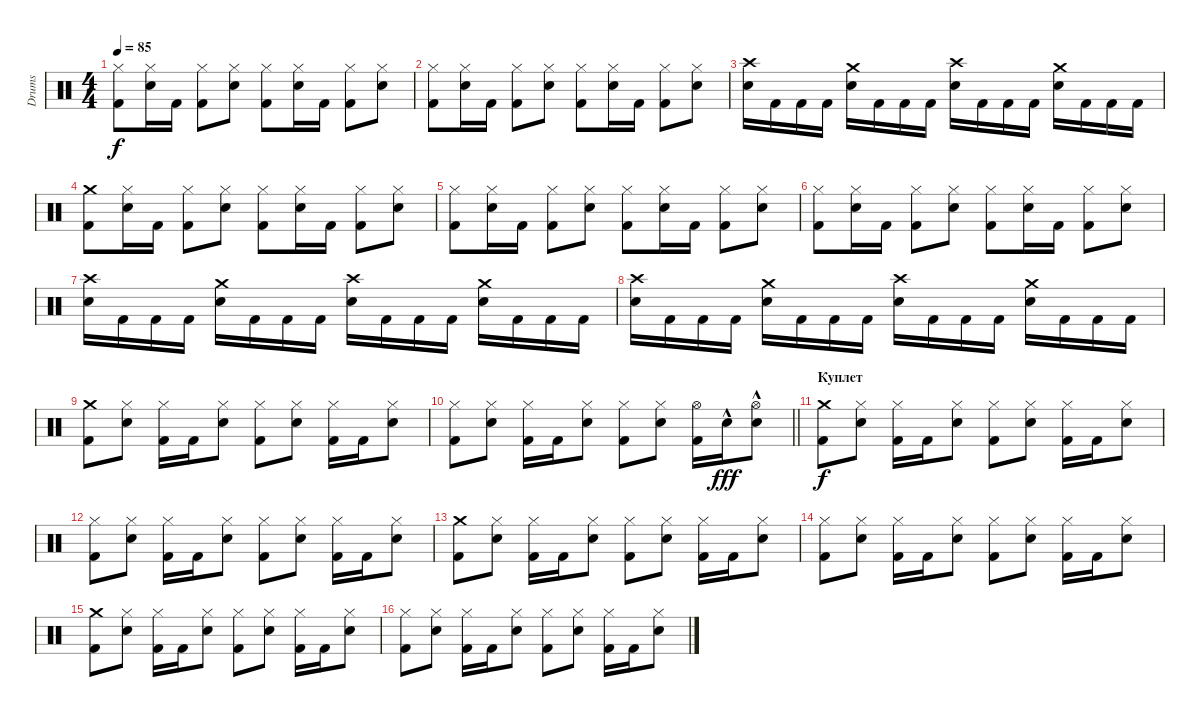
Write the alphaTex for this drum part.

\track ("Drums" "Drums") {instrument percussion}
\staff {score}
\articulation defaults
\ts (4 4)
\tempo 85
\clef neutral
\ks c
("Hi-Hat (closed)" "Kick (hit) 2").8{dy f} ("Hi-Hat (closed)" "Snare (hit) 2").16 "Kick (hit) 2".16 ("Hi-Hat (closed)" "Kick (hit) 2").8 ("Hi-Hat (closed)" "Snare (hit) 2").8 ("Hi-Hat (closed)" "Kick (hit) 2").8 ("Hi-Hat (closed)" "Snare (hit) 2").16 "Kick (hit) 2".16 ("Hi-Hat (closed)" "Kick (hit) 2").8 ("Hi-Hat (closed)" "Snare (hit) 2").8 |
("Hi-Hat (closed)" "Kick (hit) 2").8 ("Hi-Hat (closed)" "Snare (hit) 2").16 "Kick (hit) 2".16 ("Hi-Hat (closed)" "Kick (hit) 2").8 ("Hi-Hat (closed)" "Snare (hit) 2").8 ("Hi-Hat (closed)" "Kick (hit) 2").8 ("Hi-Hat (closed)" "Snare (hit) 2").16 "Kick (hit) 2".16 ("Hi-Hat (closed)" "Kick (hit) 2").8 ("Hi-Hat (closed)" "Snare (hit) 2").8 |
("Crash high (hit)" "Snare (hit) 2").16 "Kick (hit) 2".16 "Kick (hit) 2".16 "Kick (hit) 2".16 ("Crash medium (hit)" "Snare (hit) 2").16 "Kick (hit) 2".16 "Kick (hit) 2".16 "Kick (hit) 2".16 ("Crash high (hit)" "Snare (hit) 2").16 "Kick (hit) 2".16 "Kick (hit) 2".16 "Kick (hit) 2".16 ("Crash medium (hit)" "Snare (hit) 2").16 "Kick (hit) 2".16 "Kick (hit) 2".16 "Kick (hit) 2".16 |
("Crash medium (hit)" "Kick (hit) 2").8 ("Hi-Hat (closed)" "Snare (hit) 2").16 "Kick (hit) 2".16 ("Hi-Hat (closed)" "Kick (hit) 2").8 ("Hi-Hat (closed)" "Snare (hit) 2").8 ("Hi-Hat (closed)" "Kick (hit) 2").8 ("Hi-Hat (closed)" "Snare (hit) 2").16 "Kick (hit) 2".16 ("Hi-Hat (closed)" "Kick (hit) 2").8 ("Hi-Hat (closed)" "Snare (hit) 2").8 |
("Hi-Hat (closed)" "Kick (hit) 2").8 ("Hi-Hat (closed)" "Snare (hit) 2").16 "Kick (hit) 2".16 ("Hi-Hat (closed)" "Kick (hit) 2").8 ("Hi-Hat (closed)" "Snare (hit) 2").8 ("Hi-Hat (closed)" "Kick (hit) 2").8 ("Hi-Hat (closed)" "Snare (hit) 2").16 "Kick (hit) 2".16 ("Hi-Hat (closed)" "Kick (hit) 2").8 ("Hi-Hat (closed)" "Snare (hit) 2").8 |
("Hi-Hat (closed)" "Kick (hit) 2").8 ("Hi-Hat (closed)" "Snare (hit) 2").16 "Kick (hit) 2".16 ("Hi-Hat (closed)" "Kick (hit) 2").8 ("Hi-Hat (closed)" "Snare (hit) 2").8 ("Hi-Hat (closed)" "Kick (hit) 2").8 ("Hi-Hat (closed)" "Snare (hit) 2").16 "Kick (hit) 2".16 ("Hi-Hat (closed)" "Kick (hit) 2").8 ("Hi-Hat (closed)" "Snare (hit) 2").8 |
("Crash high (hit)" "Snare (hit) 2").16 "Kick (hit) 2".16 "Kick (hit) 2".16 "Kick (hit) 2".16 ("Crash medium (hit)" "Snare (hit) 2").16 "Kick (hit) 2".16 "Kick (hit) 2".16 "Kick (hit) 2".16 ("Crash high (hit)" "Snare (hit) 2").16 "Kick (hit) 2".16 "Kick (hit) 2".16 "Kick (hit) 2".16 ("Crash medium (hit)" "Snare (hit) 2").16 "Kick (hit) 2".16 "Kick (hit) 2".16 "Kick (hit) 2".16 |
("Crash high (hit)" "Snare (hit) 2").16 "Kick (hit) 2".16 "Kick (hit) 2".16 "Kick (hit) 2".16 ("Crash medium (hit)" "Snare (hit) 2").16 "Kick (hit) 2".16 "Kick (hit) 2".16 "Kick (hit) 2".16 ("Crash high (hit)" "Snare (hit) 2").16 "Kick (hit) 2".16 "Kick (hit) 2".16 "Kick (hit) 2".16 ("Crash medium (hit)" "Snare (hit) 2").16 "Kick (hit) 2".16 "Kick (hit) 2".16 "Kick (hit) 2".16 |
("Crash medium (hit)" "Kick (hit) 2").8 ("Hi-Hat (closed)" "Snare (hit) 2").8 ("Hi-Hat (closed)" "Kick (hit) 2").16 "Kick (hit) 2".16 ("Hi-Hat (closed)" "Snare (hit) 2").8 ("Hi-Hat (closed)" "Kick (hit) 2").8 ("Hi-Hat (closed)" "Snare (hit) 2").8 ("Hi-Hat (closed)" "Kick (hit) 2").16 "Kick (hit) 2".16 ("Hi-Hat (closed)" "Snare (hit) 2").8 |
\barLineRight lightlight
("Hi-Hat (closed)" "Kick (hit) 2").8 ("Hi-Hat (closed)" "Snare (hit) 2").8 ("Hi-Hat (closed)" "Kick (hit) 2").16 "Kick (hit) 2".16 ("Hi-Hat (closed)" "Snare (hit) 2").8 ("Hi-Hat (closed)" "Kick (hit) 2").8 ("Hi-Hat (closed)" "Snare (hit) 2").8 ("Hi-Hat (open)" "Kick (hit) 2").16 "Snare (hit) 2"{hac}.16{dy fff} ("Hi-Hat (open)" "Snare (hit) 2"{hac}).8 |
\section ("" "Куплет")
("Crash medium (hit)" "Kick (hit) 2").8{dy f} ("Hi-Hat (closed)" "Snare (hit) 2").8 ("Hi-Hat (closed)" "Kick (hit) 2").16 "Kick (hit) 2".16 ("Hi-Hat (closed)" "Snare (hit) 2").8 ("Hi-Hat (closed)" "Kick (hit) 2").8 ("Hi-Hat (closed)" "Snare (hit) 2").8 ("Hi-Hat (closed)" "Kick (hit) 2").16 "Kick (hit) 2".16 ("Hi-Hat (closed)" "Snare (hit) 2").8 |
("Hi-Hat (closed)" "Kick (hit) 2").8 ("Hi-Hat (closed)" "Snare (hit) 2").8 ("Hi-Hat (closed)" "Kick (hit) 2").16 "Kick (hit) 2".16 ("Hi-Hat (closed)" "Snare (hit) 2").8 ("Hi-Hat (closed)" "Kick (hit) 2").8 ("Hi-Hat (closed)" "Snare (hit) 2").8 ("Hi-Hat (closed)" "Kick (hit) 2").16 "Kick (hit) 2".16 ("Hi-Hat (closed)" "Snare (hit) 2").8 |
("Crash medium (hit)" "Kick (hit) 2").8 ("Hi-Hat (closed)" "Snare (hit) 2").8 ("Hi-Hat (closed)" "Kick (hit) 2").16 "Kick (hit) 2".16 ("Hi-Hat (closed)" "Snare (hit) 2").8 ("Hi-Hat (closed)" "Kick (hit) 2").8 ("Hi-Hat (closed)" "Snare (hit) 2").8 ("Hi-Hat (closed)" "Kick (hit) 2").16 "Kick (hit) 2".16 ("Hi-Hat (closed)" "Snare (hit) 2").8 |
("Hi-Hat (closed)" "Kick (hit) 2").8 ("Hi-Hat (closed)" "Snare (hit) 2").8 ("Hi-Hat (closed)" "Kick (hit) 2").16 "Kick (hit) 2".16 ("Hi-Hat (closed)" "Snare (hit) 2").8 ("Hi-Hat (closed)" "Kick (hit) 2").8 ("Hi-Hat (closed)" "Snare (hit) 2").8 ("Hi-Hat (closed)" "Kick (hit) 2").16 "Kick (hit) 2".16 ("Hi-Hat (closed)" "Snare (hit) 2").8 |
("Crash medium (hit)" "Kick (hit) 2").8 ("Hi-Hat (closed)" "Snare (hit) 2").8 ("Hi-Hat (closed)" "Kick (hit) 2").16 "Kick (hit) 2".16 ("Hi-Hat (closed)" "Snare (hit) 2").8 ("Hi-Hat (closed)" "Kick (hit) 2").8 ("Hi-Hat (closed)" "Snare (hit) 2").8 ("Hi-Hat (closed)" "Kick (hit) 2").16 "Kick (hit) 2".16 ("Hi-Hat (closed)" "Snare (hit) 2").8 |
("Hi-Hat (closed)" "Kick (hit) 2").8 ("Hi-Hat (closed)" "Snare (hit) 2").8 ("Hi-Hat (closed)" "Kick (hit) 2").16 "Kick (hit) 2".16 ("Hi-Hat (closed)" "Snare (hit) 2").8 ("Hi-Hat (closed)" "Kick (hit) 2").8 ("Hi-Hat (closed)" "Snare (hit) 2").8 ("Hi-Hat (closed)" "Kick (hit) 2").16 "Kick (hit) 2".16 ("Hi-Hat (closed)" "Snare (hit) 2").8
